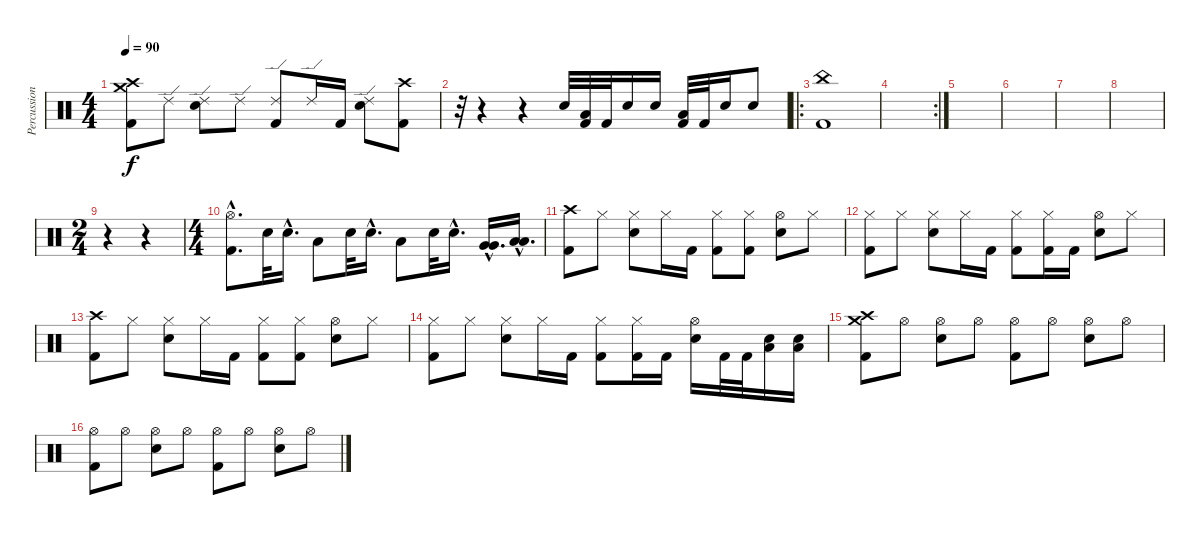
\track ("Percussions" "Percussion") {instrument percussion}
\staff {score}
\articulation defaults
\ts (4 4)
\tempo 90
\clef neutral
\ks c
("Crash high (hit)" "Crash medium (hit)" "Kick (hit) 2").8{dy f} "Ride (edge) 2".8 ("Ride (edge) 2" "Snare (hit) 2").8 "Ride (edge) 2".8 ("Ride (edge) 2" "Kick (hit) 2").8 "Ride (edge) 2".16 "Kick (hit) 2".16 ("Ride (edge) 2" "Snare (hit) 2").8 ("Crash high (hit)" "Kick (hit) 2").8 |
r.32 r.4 r.4 "Snare (hit) 2".32 ("Low Floor Tom (hit)" "Kick (hit) 2").32 "Kick (hit) 2".32 "Snare (hit) 2".16 "Snare (hit) 2".16 ("Low Floor Tom (hit)" "Kick (hit) 2").32 "Kick (hit) 2".32 "Snare (hit) 2".16 "Snare (hit) 2".8 |
\ro
("China (hit)" "Kick (hit) 2").1 |
\rc 2
|
|
|
|
|
\ts (2 4)
r.4 r.4 |
\ts (4 4)
("Hi-Hat (open)"{hac} "Kick (hit) 2"{hac}).8{d} "Snare (hit) 2".32 "Snare (hit) 2"{hac}.16{d} "Low Tom (hit)".8 "Snare (hit) 2".32 "Snare (hit) 2"{hac}.16{d} "Low Tom (hit)".8 "Snare (hit) 2".32 "Snare (hit) 2"{hac}.16{d} ("Very Low Tom (hit)"{hac} "Very Low Tom (hit)"{hac}).16{d bd 120} ("Low Floor Tom (hit)"{hac} "Low Floor Tom (hit)"{hac}).16{d bd 120} |
("Crash high (hit)" "Kick (hit) 2").8 "Hi-Hat (closed)".8 ("Hi-Hat (closed)" "Snare (hit) 2").8 "Hi-Hat (closed)".16 "Kick (hit) 2".16 ("Hi-Hat (closed)" "Kick (hit) 2").8 ("Hi-Hat (closed)" "Kick (hit) 2").8 ("Hi-Hat (open)" "Snare (hit) 2").8 "Hi-Hat (closed)".8 |
("Hi-Hat (closed)" "Kick (hit) 2").8 "Hi-Hat (closed)".8 ("Hi-Hat (closed)" "Snare (hit) 2").8 "Hi-Hat (closed)".16 "Kick (hit) 2".16 ("Hi-Hat (closed)" "Kick (hit) 2").8 ("Hi-Hat (closed)" "Kick (hit) 2").16 "Kick (hit) 2".16 ("Hi-Hat (open)" "Snare (hit) 2").8 "Hi-Hat (closed)".8 |
("Crash high (hit)" "Kick (hit) 2").8 "Hi-Hat (closed)".8 ("Hi-Hat (closed)" "Snare (hit) 2").8 "Hi-Hat (closed)".16 "Kick (hit) 2".16 ("Hi-Hat (closed)" "Kick (hit) 2").8 ("Hi-Hat (closed)" "Kick (hit) 2").8 ("Hi-Hat (open)" "Snare (hit) 2").8 "Hi-Hat (closed)".8 |
("Hi-Hat (closed)" "Kick (hit) 2").8 "Hi-Hat (closed)".8 ("Hi-Hat (closed)" "Snare (hit) 2").8 "Hi-Hat (closed)".16 "Kick (hit) 2".16 ("Hi-Hat (closed)" "Kick (hit) 2").8 ("Hi-Hat (closed)" "Kick (hit) 2").16 "Kick (hit) 2".16 ("Hi-Hat (open)" "Snare (hit) 2").16 "Kick (hit) 2".32 "Kick (hit) 2".32 ("Low Floor Tom (hit)" "Snare (hit) 2").16 ("Low Floor Tom (hit)" "Snare (hit) 2").16 |
("Crash high (hit)" "Crash medium (hit)" "Kick (hit) 2").8 "Hi-Hat (open)".8 ("Hi-Hat (open)" "Snare (hit) 2").8 "Hi-Hat (open)".8 ("Hi-Hat (open)" "Kick (hit) 2").8 "Hi-Hat (open)".8 ("Hi-Hat (open)" "Snare (hit) 2").8 "Hi-Hat (open)".8 |
("Hi-Hat (open)" "Kick (hit) 2").8 "Hi-Hat (open)".8 ("Hi-Hat (open)" "Snare (hit) 2").8 "Hi-Hat (open)".8 ("Hi-Hat (open)" "Kick (hit) 2").8 "Hi-Hat (open)".8 ("Hi-Hat (open)" "Snare (hit) 2").8 "Hi-Hat (open)".8
